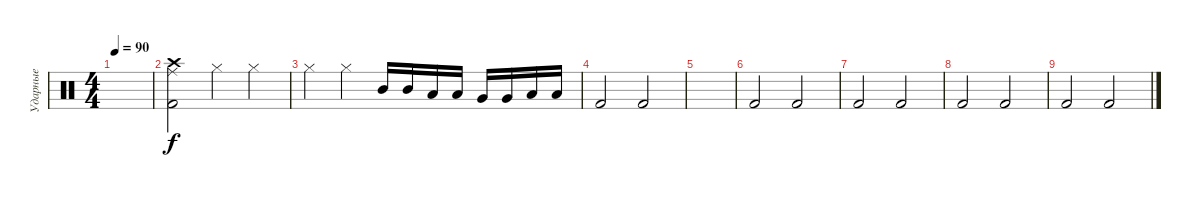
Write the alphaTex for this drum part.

\track ("Ударные" "Ударные") {instrument percussion}
\staff {score}
\articulation defaults
\ts (4 4)
\tempo 90
\clef neutral
\ks c
|
("Kick (hit) 2" "Crash high (hit)" "Ride (middle)").2 "Hi-Hat (closed)".4 "Hi-Hat (closed)".4 |
"Hi-Hat (closed)".4 "Hi-Hat (closed)".4 "Mid Tom (hit)".16 "Mid Tom (hit)".16 "Low Tom (hit)".16 "Low Tom (hit)".16 "Very Low Tom (hit)".16 "Very Low Tom (hit)".16 "Low Floor Tom (hit)".16 "Low Floor Tom (hit)".16 |
"Kick (hit) 2".2 "Kick (hit) 2".2 |
|
"Kick (hit) 2".2 "Kick (hit) 2".2 |
"Kick (hit) 2".2 "Kick (hit) 2".2 |
"Kick (hit) 2".2 "Kick (hit) 2".2 |
"Kick (hit) 2".2 "Kick (hit) 2".2
